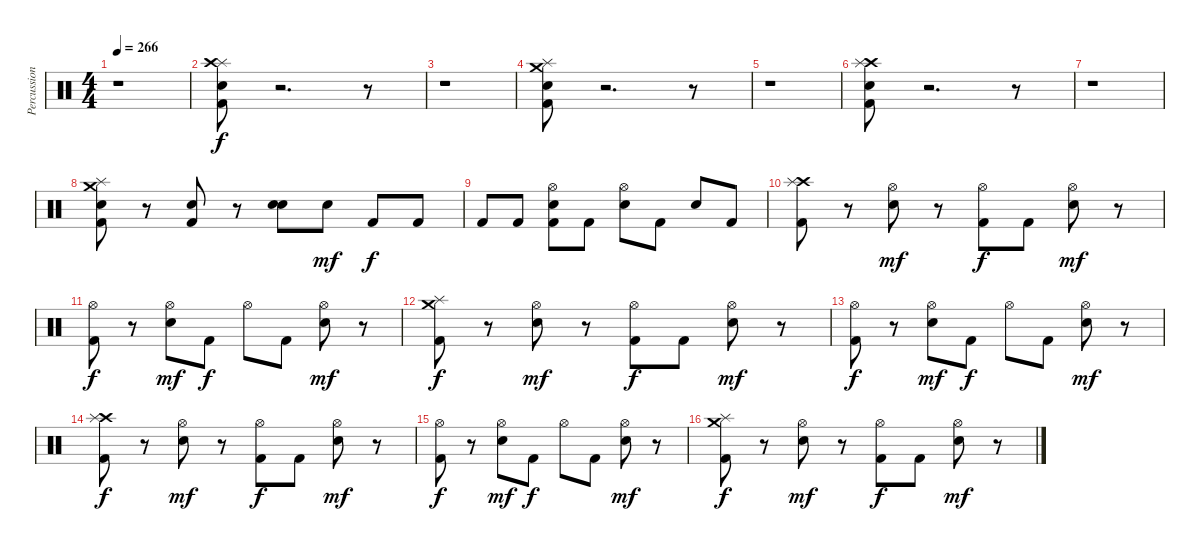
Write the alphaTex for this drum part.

\track ("Percussion" "Percussion") {instrument percussion}
\staff {score}
\articulation defaults
\ts (4 4)
\tempo 266
\clef neutral
\ks c
r.1{dy f} |
("Splash (hit)" "Crash high (hit)" "Snare (hit) 2" "Kick (hit) 2").8 r.2{d} r.8 |
r.1 |
("Splash (hit)" "Crash medium (hit)" "Snare (hit) 2" "Kick (hit) 2").8 r.2{d} r.8 |
r.1 |
("Crash high (hit)" "Splash (hit)" "Snare (hit) 2" "Kick (hit) 2").8 r.2{d} r.8 |
r.1 |
("Snare (hit) 2" "Kick (hit) 2" "Splash (hit)" "Crash medium (hit)").8 r.8 ("Electric Snare (hit)" "Kick (hit) 2").8 r.8 ("Snare (hit) 2" "Electric Snare (hit)").8 "Snare (hit) 2".8{dy mf} "Kick (hit) 2".8{dy f} "Kick (hit) 2".8 |
"Kick (hit) 2".8 "Kick (hit) 2".8 ("Snare (hit) 2" "Kick (hit) 2" "Hi-Hat (open)").8 "Kick (hit) 2".8 ("Snare (hit) 2" "Hi-Hat (open)").8 "Kick (hit) 2".8 "Snare (hit) 2".8 "Kick (hit) 2".8 |
("Crash high (hit)" "Splash (hit)" "Kick (hit) 2").8 r.8 ("Snare (hit) 2" "Hi-Hat (open)").8{dy mf} r.8 ("Kick (hit) 2" "Hi-Hat (open)").8{dy f} "Kick (hit) 2".8 ("Snare (hit) 2" "Hi-Hat (open)").8{dy mf} r.8 |
("Kick (hit) 2" "Hi-Hat (open)").8{dy f} r.8 ("Snare (hit) 2" "Hi-Hat (open)").8{dy mf} "Kick (hit) 2".8{dy f} "Hi-Hat (open)".8 "Kick (hit) 2".8 ("Snare (hit) 2" "Hi-Hat (open)").8{dy mf} r.8 |
("Crash medium (hit)" "Splash (hit)" "Kick (hit) 2").8{dy f} r.8 ("Snare (hit) 2" "Hi-Hat (open)").8{dy mf} r.8 ("Kick (hit) 2" "Hi-Hat (open)").8{dy f} "Kick (hit) 2".8 ("Snare (hit) 2" "Hi-Hat (open)").8{dy mf} r.8 |
("Kick (hit) 2" "Hi-Hat (open)").8{dy f} r.8 ("Snare (hit) 2" "Hi-Hat (open)").8{dy mf} "Kick (hit) 2".8{dy f} "Hi-Hat (open)".8 "Kick (hit) 2".8 ("Snare (hit) 2" "Hi-Hat (open)").8{dy mf} r.8 |
("Crash high (hit)" "Splash (hit)" "Kick (hit) 2").8{dy f} r.8 ("Snare (hit) 2" "Hi-Hat (open)").8{dy mf} r.8 ("Kick (hit) 2" "Hi-Hat (open)").8{dy f} "Kick (hit) 2".8 ("Snare (hit) 2" "Hi-Hat (open)").8{dy mf} r.8 |
("Kick (hit) 2" "Hi-Hat (open)").8{dy f} r.8 ("Snare (hit) 2" "Hi-Hat (open)").8{dy mf} "Kick (hit) 2".8{dy f} "Hi-Hat (open)".8 "Kick (hit) 2".8 ("Snare (hit) 2" "Hi-Hat (open)").8{dy mf} r.8 |
("Crash medium (hit)" "Splash (hit)" "Kick (hit) 2").8{dy f} r.8 ("Snare (hit) 2" "Hi-Hat (open)").8{dy mf} r.8 ("Kick (hit) 2" "Hi-Hat (open)").8{dy f} "Kick (hit) 2".8 ("Snare (hit) 2" "Hi-Hat (open)").8{dy mf} r.8
